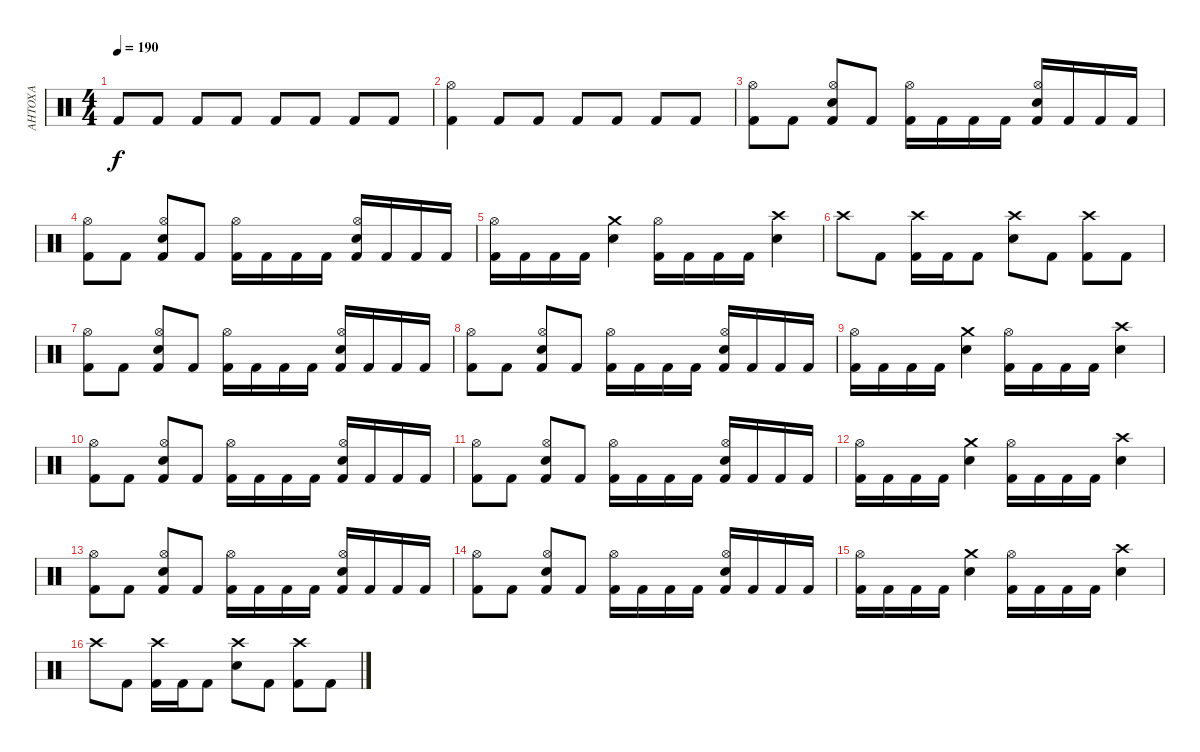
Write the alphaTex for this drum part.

\track ("АНТОХА" "АНТОХА") {instrument percussion}
\staff {score}
\articulation defaults
\ts (4 4)
\tempo 190
\clef neutral
\ks c "Kick (hit) 2".8{dy f} "Kick (hit) 2".8 "Kick (hit) 2".8 "Kick (hit) 2".8 "Kick (hit) 2".8 "Kick (hit) 2".8 "Kick (hit) 2".8 "Kick (hit) 2".8
|
("Kick (hit) 2" "Hi-Hat (open)").4 "Kick (hit) 2".8 "Kick (hit) 2".8 "Kick (hit) 2".8 "Kick (hit) 2".8 "Kick (hit) 2".8 "Kick (hit) 2".8 |
("Hi-Hat (open)" "Kick (hit) 2").8 "Kick (hit) 2".8 ("Hi-Hat (open)" "Electric Snare (hit)" "Kick (hit) 2").8 "Kick (hit) 2".8 ("Hi-Hat (open)" "Kick (hit) 2").16 "Kick (hit) 2".16 "Kick (hit) 2".16 "Kick (hit) 2".16 ("Hi-Hat (open)" "Electric Snare (hit)" "Kick (hit) 2").16 "Kick (hit) 2".16 "Kick (hit) 2".16 "Kick (hit) 2".16 |
("Hi-Hat (open)" "Kick (hit) 2").8 "Kick (hit) 2".8 ("Hi-Hat (open)" "Electric Snare (hit)" "Kick (hit) 2").8 "Kick (hit) 2".8 ("Hi-Hat (open)" "Kick (hit) 2").16 "Kick (hit) 2".16 "Kick (hit) 2".16 "Kick (hit) 2".16 ("Hi-Hat (open)" "Electric Snare (hit)" "Kick (hit) 2").16 "Kick (hit) 2".16 "Kick (hit) 2".16 "Kick (hit) 2".16 |
("Hi-Hat (open)" "Kick (hit) 2").16 "Kick (hit) 2".16 "Kick (hit) 2".16 "Kick (hit) 2".16 ("Crash medium (hit)" "Electric Snare (hit)").4 ("Hi-Hat (open)" "Kick (hit) 2").16 "Kick (hit) 2".16 "Kick (hit) 2".16 "Kick (hit) 2".16 ("Crash high (hit)" "Electric Snare (hit)").4 |
"Crash high (hit)".8 "Kick (hit) 2".8 ("Crash high (hit)" "Kick (hit) 2").16 "Kick (hit) 2".16 "Kick (hit) 2".8 ("Crash high (hit)" "Electric Snare (hit)").8 "Kick (hit) 2".8 ("Crash high (hit)" "Kick (hit) 2").8 "Kick (hit) 2".8 |
("Hi-Hat (open)" "Kick (hit) 2").8 "Kick (hit) 2".8 ("Hi-Hat (open)" "Electric Snare (hit)" "Kick (hit) 2").8 "Kick (hit) 2".8 ("Hi-Hat (open)" "Kick (hit) 2").16 "Kick (hit) 2".16 "Kick (hit) 2".16 "Kick (hit) 2".16 ("Hi-Hat (open)" "Electric Snare (hit)" "Kick (hit) 2").16 "Kick (hit) 2".16 "Kick (hit) 2".16 "Kick (hit) 2".16 |
("Hi-Hat (open)" "Kick (hit) 2").8 "Kick (hit) 2".8 ("Hi-Hat (open)" "Electric Snare (hit)" "Kick (hit) 2").8 "Kick (hit) 2".8 ("Hi-Hat (open)" "Kick (hit) 2").16 "Kick (hit) 2".16 "Kick (hit) 2".16 "Kick (hit) 2".16 ("Hi-Hat (open)" "Electric Snare (hit)" "Kick (hit) 2").16 "Kick (hit) 2".16 "Kick (hit) 2".16 "Kick (hit) 2".16 |
("Hi-Hat (open)" "Kick (hit) 2").16 "Kick (hit) 2".16 "Kick (hit) 2".16 "Kick (hit) 2".16 ("Crash medium (hit)" "Electric Snare (hit)").4 ("Hi-Hat (open)" "Kick (hit) 2").16 "Kick (hit) 2".16 "Kick (hit) 2".16 "Kick (hit) 2".16 ("Crash high (hit)" "Electric Snare (hit)").4 |
("Hi-Hat (open)" "Kick (hit) 2").8 "Kick (hit) 2".8 ("Hi-Hat (open)" "Electric Snare (hit)" "Kick (hit) 2").8 "Kick (hit) 2".8 ("Hi-Hat (open)" "Kick (hit) 2").16 "Kick (hit) 2".16 "Kick (hit) 2".16 "Kick (hit) 2".16 ("Hi-Hat (open)" "Electric Snare (hit)" "Kick (hit) 2").16 "Kick (hit) 2".16 "Kick (hit) 2".16 "Kick (hit) 2".16 |
("Hi-Hat (open)" "Kick (hit) 2").8 "Kick (hit) 2".8 ("Hi-Hat (open)" "Electric Snare (hit)" "Kick (hit) 2").8 "Kick (hit) 2".8 ("Hi-Hat (open)" "Kick (hit) 2").16 "Kick (hit) 2".16 "Kick (hit) 2".16 "Kick (hit) 2".16 ("Hi-Hat (open)" "Electric Snare (hit)" "Kick (hit) 2").16 "Kick (hit) 2".16 "Kick (hit) 2".16 "Kick (hit) 2".16 |
("Hi-Hat (open)" "Kick (hit) 2").16 "Kick (hit) 2".16 "Kick (hit) 2".16 "Kick (hit) 2".16 ("Crash medium (hit)" "Electric Snare (hit)").4 ("Hi-Hat (open)" "Kick (hit) 2").16 "Kick (hit) 2".16 "Kick (hit) 2".16 "Kick (hit) 2".16 ("Crash high (hit)" "Electric Snare (hit)").4 |
("Hi-Hat (open)" "Kick (hit) 2").8 "Kick (hit) 2".8 ("Hi-Hat (open)" "Electric Snare (hit)" "Kick (hit) 2").8 "Kick (hit) 2".8 ("Hi-Hat (open)" "Kick (hit) 2").16 "Kick (hit) 2".16 "Kick (hit) 2".16 "Kick (hit) 2".16 ("Hi-Hat (open)" "Electric Snare (hit)" "Kick (hit) 2").16 "Kick (hit) 2".16 "Kick (hit) 2".16 "Kick (hit) 2".16 |
("Hi-Hat (open)" "Kick (hit) 2").8 "Kick (hit) 2".8 ("Hi-Hat (open)" "Electric Snare (hit)" "Kick (hit) 2").8 "Kick (hit) 2".8 ("Hi-Hat (open)" "Kick (hit) 2").16 "Kick (hit) 2".16 "Kick (hit) 2".16 "Kick (hit) 2".16 ("Hi-Hat (open)" "Electric Snare (hit)" "Kick (hit) 2").16 "Kick (hit) 2".16 "Kick (hit) 2".16 "Kick (hit) 2".16 |
("Hi-Hat (open)" "Kick (hit) 2").16 "Kick (hit) 2".16 "Kick (hit) 2".16 "Kick (hit) 2".16 ("Crash medium (hit)" "Electric Snare (hit)").4 ("Hi-Hat (open)" "Kick (hit) 2").16 "Kick (hit) 2".16 "Kick (hit) 2".16 "Kick (hit) 2".16 ("Crash high (hit)" "Electric Snare (hit)").4 |
"Crash high (hit)".8 "Kick (hit) 2".8 ("Crash high (hit)" "Kick (hit) 2").16 "Kick (hit) 2".16 "Kick (hit) 2".8 ("Crash high (hit)" "Electric Snare (hit)").8 "Kick (hit) 2".8 ("Crash high (hit)" "Kick (hit) 2").8 "Kick (hit) 2".8
